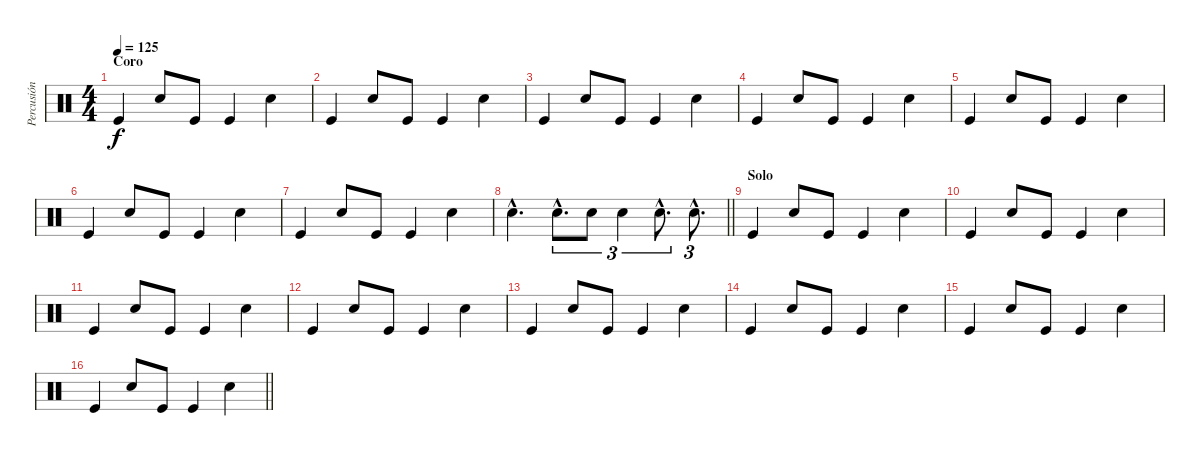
\track ("Percusión" "Percusión") {instrument percussion}
\staff {score}
\articulation defaults
\ts (4 4)
\section ("" "Coro")
\tempo 125
\clef neutral
\ks c "Kick (hit)".4{dy f} "Snare (hit) 2".8 "Kick (hit)".8 "Kick (hit)".4 "Snare (hit) 2".4
|
"Kick (hit)".4 "Snare (hit) 2".8 "Kick (hit)".8 "Kick (hit)".4 "Snare (hit) 2".4 |
"Kick (hit)".4 "Snare (hit) 2".8 "Kick (hit)".8 "Kick (hit)".4 "Snare (hit) 2".4 |
"Kick (hit)".4 "Snare (hit) 2".8 "Kick (hit)".8 "Kick (hit)".4 "Snare (hit) 2".4 |
"Kick (hit)".4 "Snare (hit) 2".8 "Kick (hit)".8 "Kick (hit)".4 "Snare (hit) 2".4 |
"Kick (hit)".4 "Snare (hit) 2".8 "Kick (hit)".8 "Kick (hit)".4 "Snare (hit) 2".4 |
"Kick (hit)".4 "Snare (hit) 2".8 "Kick (hit)".8 "Kick (hit)".4 "Snare (hit) 2".4 |
\barLineRight lightlight "Snare (hit) 2"{hac}.4{d} "Snare (hit) 2"{hac}.8{d tu (3 2)} "Snare (hit) 2".8{tu (3 2)} "Snare (hit) 2".4{tu (3 2)} "Snare (hit) 2"{hac}.8{d tu (3 2)} "Snare (hit) 2"{hac}.8{d tu (3 2)}
|
\section ("" "Solo")
"Kick (hit)".4 "Snare (hit) 2".8 "Kick (hit)".8 "Kick (hit)".4 "Snare (hit) 2".4 |
"Kick (hit)".4 "Snare (hit) 2".8 "Kick (hit)".8 "Kick (hit)".4 "Snare (hit) 2".4 |
"Kick (hit)".4 "Snare (hit) 2".8 "Kick (hit)".8 "Kick (hit)".4 "Snare (hit) 2".4 |
"Kick (hit)".4 "Snare (hit) 2".8 "Kick (hit)".8 "Kick (hit)".4 "Snare (hit) 2".4 |
"Kick (hit)".4 "Snare (hit) 2".8 "Kick (hit)".8 "Kick (hit)".4 "Snare (hit) 2".4 |
"Kick (hit)".4 "Snare (hit) 2".8 "Kick (hit)".8 "Kick (hit)".4 "Snare (hit) 2".4 |
"Kick (hit)".4 "Snare (hit) 2".8 "Kick (hit)".8 "Kick (hit)".4 "Snare (hit) 2".4 |
\barLineRight lightlight "Kick (hit)".4 "Snare (hit) 2".8 "Kick (hit)".8 "Kick (hit)".4 "Snare (hit) 2".4
